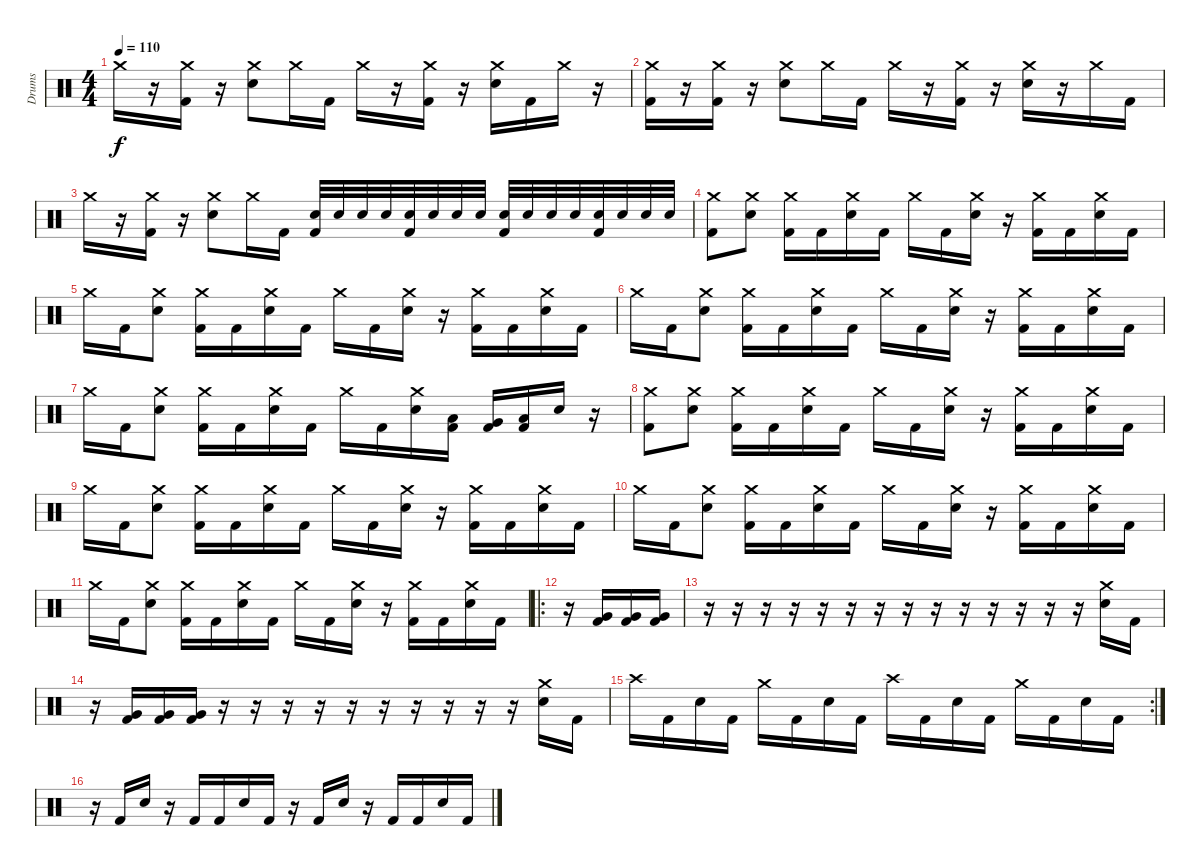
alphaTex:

\track ("Drums" "Drums") {instrument percussion}
\staff {score}
\articulation defaults
\ts (4 4)
\tempo 110
\clef neutral
\ks c "Crash medium (hit)".16{dy f}
r.16 ("Crash medium (hit)" "Kick (hit) 2").16 r.16 ("Crash medium (hit)" "Electric Snare (hit)").8 "Crash medium (hit)".16 "Kick (hit) 2".16 "Crash medium (hit)".16 r.16 ("Crash medium (hit)" "Kick (hit) 2").16 r.16 ("Crash medium (hit)" "Electric Snare (hit)").16 "Kick (hit) 2".16 "Crash medium (hit)".16 r.16 |
("Crash medium (hit)" "Kick (hit) 2").16 r.16 ("Crash medium (hit)" "Kick (hit) 2").16 r.16 ("Crash medium (hit)" "Electric Snare (hit)").8 "Crash medium (hit)".16 "Kick (hit) 2".16 "Crash medium (hit)".16 r.16 ("Crash medium (hit)" "Kick (hit) 2").16 r.16 ("Crash medium (hit)" "Electric Snare (hit)").16 r.16 "Crash medium (hit)".16 "Kick (hit) 2".16 |
"Crash medium (hit)".16 r.16 ("Crash medium (hit)" "Kick (hit) 2").16 r.16 ("Crash medium (hit)" "Electric Snare (hit)").8 "Crash medium (hit)".16 "Kick (hit) 2".16 ("Electric Snare (hit)" "Kick (hit) 2").32 "Electric Snare (hit)".32 "Electric Snare (hit)".32 "Electric Snare (hit)".32 ("Electric Snare (hit)" "Kick (hit) 2").32 "Electric Snare (hit)".32 "Electric Snare (hit)".32 "Electric Snare (hit)".32 ("Electric Snare (hit)" "Kick (hit) 2").32 "Electric Snare (hit)".32 "Electric Snare (hit)".32 "Electric Snare (hit)".32 ("Electric Snare (hit)" "Kick (hit) 2").32 "Electric Snare (hit)".32 "Electric Snare (hit)".32 "Electric Snare (hit)".32 |
("Crash medium (hit)" "Kick (hit) 2").8 ("Crash medium (hit)" "Electric Snare (hit)").8 ("Crash medium (hit)" "Kick (hit) 2").16 "Kick (hit) 2".16 ("Crash medium (hit)" "Electric Snare (hit)").16 "Kick (hit) 2".16 "Crash medium (hit)".16 "Kick (hit) 2".16 ("Crash medium (hit)" "Electric Snare (hit)").16 r.16 ("Crash medium (hit)" "Kick (hit) 2").16 "Kick (hit) 2".16 ("Crash medium (hit)" "Electric Snare (hit)").16 "Kick (hit) 2".16 |
"Crash medium (hit)".16 "Kick (hit) 2".16 ("Crash medium (hit)" "Electric Snare (hit)").8 ("Crash medium (hit)" "Kick (hit) 2").16 "Kick (hit) 2".16 ("Crash medium (hit)" "Electric Snare (hit)").16 "Kick (hit) 2".16 "Crash medium (hit)".16 "Kick (hit) 2".16 ("Crash medium (hit)" "Electric Snare (hit)").16 r.16 ("Crash medium (hit)" "Kick (hit) 2").16 "Kick (hit) 2".16 ("Crash medium (hit)" "Electric Snare (hit)").16 "Kick (hit) 2".16 |
"Crash medium (hit)".16 "Kick (hit) 2".16 ("Crash medium (hit)" "Electric Snare (hit)").8 ("Crash medium (hit)" "Kick (hit) 2").16 "Kick (hit) 2".16 ("Crash medium (hit)" "Electric Snare (hit)").16 "Kick (hit) 2".16 "Crash medium (hit)".16 "Kick (hit) 2".16 ("Crash medium (hit)" "Electric Snare (hit)").16 r.16 ("Crash medium (hit)" "Kick (hit) 2").16 "Kick (hit) 2".16 ("Crash medium (hit)" "Electric Snare (hit)").16 "Kick (hit) 2".16 |
"Crash medium (hit)".16 "Kick (hit) 2".16 ("Crash medium (hit)" "Electric Snare (hit)").8 ("Crash medium (hit)" "Kick (hit) 2").16 "Kick (hit) 2".16 ("Crash medium (hit)" "Electric Snare (hit)").16 "Kick (hit) 2".16 "Crash medium (hit)".16 "Kick (hit) 2".16 ("Crash medium (hit)" "Electric Snare (hit)").16 ("Low Tom (hit)" "Kick (hit) 2").16 ("Very Low Tom (hit)" "Kick (hit) 2").16 ("Low Floor Tom (hit)" "Kick (hit) 2").16 "Electric Snare (hit)".16 r.16 |
("Crash medium (hit)" "Kick (hit) 2").8 ("Crash medium (hit)" "Electric Snare (hit)").8 ("Crash medium (hit)" "Kick (hit) 2").16 "Kick (hit) 2".16 ("Crash medium (hit)" "Electric Snare (hit)").16 "Kick (hit) 2".16 "Crash medium (hit)".16 "Kick (hit) 2".16 ("Crash medium (hit)" "Electric Snare (hit)").16 r.16 ("Crash medium (hit)" "Kick (hit) 2").16 "Kick (hit) 2".16 ("Crash medium (hit)" "Electric Snare (hit)").16 "Kick (hit) 2".16 |
"Crash medium (hit)".16 "Kick (hit) 2".16 ("Crash medium (hit)" "Electric Snare (hit)").8 ("Crash medium (hit)" "Kick (hit) 2").16 "Kick (hit) 2".16 ("Crash medium (hit)" "Electric Snare (hit)").16 "Kick (hit) 2".16 "Crash medium (hit)".16 "Kick (hit) 2".16 ("Crash medium (hit)" "Electric Snare (hit)").16 r.16 ("Crash medium (hit)" "Kick (hit) 2").16 "Kick (hit) 2".16 ("Crash medium (hit)" "Electric Snare (hit)").16 "Kick (hit) 2".16 |
"Crash medium (hit)".16 "Kick (hit) 2".16 ("Crash medium (hit)" "Electric Snare (hit)").8 ("Crash medium (hit)" "Kick (hit) 2").16 "Kick (hit) 2".16 ("Crash medium (hit)" "Electric Snare (hit)").16 "Kick (hit) 2".16 "Crash medium (hit)".16 "Kick (hit) 2".16 ("Crash medium (hit)" "Electric Snare (hit)").16 r.16 ("Crash medium (hit)" "Kick (hit) 2").16 "Kick (hit) 2".16 ("Crash medium (hit)" "Electric Snare (hit)").16 "Kick (hit) 2".16 |
"Crash medium (hit)".16 "Kick (hit) 2".16 ("Crash medium (hit)" "Electric Snare (hit)").8 ("Crash medium (hit)" "Kick (hit) 2").16 "Kick (hit) 2".16 ("Crash medium (hit)" "Electric Snare (hit)").16 "Kick (hit) 2".16 "Crash medium (hit)".16 "Kick (hit) 2".16 ("Crash medium (hit)" "Electric Snare (hit)").16 r.16 ("Crash medium (hit)" "Kick (hit) 2").16 "Kick (hit) 2".16 ("Crash medium (hit)" "Electric Snare (hit)").16 "Kick (hit) 2".16 |
\ro
r.16 ("Very Low Tom (hit)" "Kick (hit) 2").16 ("Very Low Tom (hit)" "Kick (hit) 2").16 ("Very Low Tom (hit)" "Kick (hit) 2").16 |
r.16 r.16 r.16 r.16 r.16 r.16 r.16 r.16 r.16 r.16 r.16 r.16 r.16 r.16 ("Crash medium (hit)" "Electric Snare (hit)").16 "Kick (hit) 2".16 |
r.16 ("Very Low Tom (hit)" "Kick (hit) 2").16 ("Very Low Tom (hit)" "Kick (hit) 2").16 ("Very Low Tom (hit)" "Kick (hit) 2").16 r.16 r.16 r.16 r.16 r.16 r.16 r.16 r.16 r.16 r.16 ("Crash medium (hit)" "Electric Snare (hit)").16 "Kick (hit) 2".16 |
\rc 2 "Crash high (hit)".16 "Kick (hit) 2".16 "Electric Snare (hit)".16 "Kick (hit) 2".16 "Crash medium (hit)".16 "Kick (hit) 2".16 "Electric Snare (hit)".16 "Kick (hit) 2".16 "Crash high (hit)".16 "Kick (hit) 2".16 "Electric Snare (hit)".16 "Kick (hit) 2".16 "Crash medium (hit)".16 "Kick (hit) 2".16 "Electric Snare (hit)".16 "Kick (hit) 2".16
|
r.16 "Kick (hit) 2".16 "Electric Snare (hit)".16 r.16 "Kick (hit) 2".16 "Kick (hit) 2".16 "Electric Snare (hit)".16 "Kick (hit) 2".16 r.16 "Kick (hit) 2".16 "Electric Snare (hit)".16 r.16 "Kick (hit) 2".16 "Kick (hit) 2".16 "Electric Snare (hit)".16 "Kick (hit) 2".16
